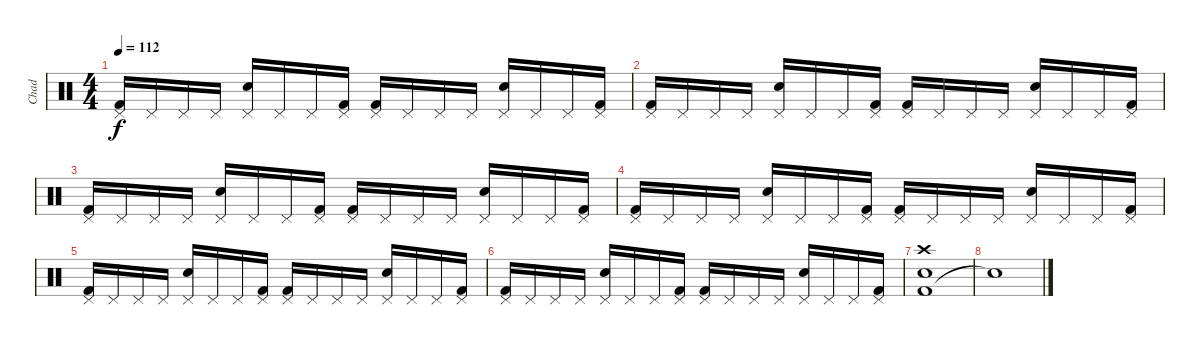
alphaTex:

\track ("Chad" "Chad") {instrument percussion}
\staff {score}
\articulation defaults
\ts (4 4)
\tempo 112
\clef neutral
\ks c
("Kick (hit) 2" "Pedal Hi-Hat (hit)").16{dy f} "Pedal Hi-Hat (hit)".16 "Pedal Hi-Hat (hit)".16 "Pedal Hi-Hat (hit)".16 ("Snare (hit) 2" "Pedal Hi-Hat (hit)").16 "Pedal Hi-Hat (hit)".16 "Pedal Hi-Hat (hit)".16 ("Kick (hit) 2" "Pedal Hi-Hat (hit)").16 ("Kick (hit) 2" "Pedal Hi-Hat (hit)").16 "Pedal Hi-Hat (hit)".16 "Pedal Hi-Hat (hit)".16 "Pedal Hi-Hat (hit)".16 ("Snare (hit) 2" "Pedal Hi-Hat (hit)").16 "Pedal Hi-Hat (hit)".16 "Pedal Hi-Hat (hit)".16 ("Kick (hit) 2" "Pedal Hi-Hat (hit)").16 |
("Kick (hit) 2" "Pedal Hi-Hat (hit)").16 "Pedal Hi-Hat (hit)".16 "Pedal Hi-Hat (hit)".16 "Pedal Hi-Hat (hit)".16 ("Snare (hit) 2" "Pedal Hi-Hat (hit)").16 "Pedal Hi-Hat (hit)".16 "Pedal Hi-Hat (hit)".16 ("Kick (hit) 2" "Pedal Hi-Hat (hit)").16 ("Kick (hit) 2" "Pedal Hi-Hat (hit)").16 "Pedal Hi-Hat (hit)".16 "Pedal Hi-Hat (hit)".16 "Pedal Hi-Hat (hit)".16 ("Snare (hit) 2" "Pedal Hi-Hat (hit)").16 "Pedal Hi-Hat (hit)".16 "Pedal Hi-Hat (hit)".16 ("Kick (hit) 2" "Pedal Hi-Hat (hit)").16 |
("Kick (hit) 2" "Pedal Hi-Hat (hit)").16 "Pedal Hi-Hat (hit)".16 "Pedal Hi-Hat (hit)".16 "Pedal Hi-Hat (hit)".16 ("Snare (hit) 2" "Pedal Hi-Hat (hit)").16 "Pedal Hi-Hat (hit)".16 "Pedal Hi-Hat (hit)".16 ("Kick (hit) 2" "Pedal Hi-Hat (hit)").16 ("Kick (hit) 2" "Pedal Hi-Hat (hit)").16 "Pedal Hi-Hat (hit)".16 "Pedal Hi-Hat (hit)".16 "Pedal Hi-Hat (hit)".16 ("Snare (hit) 2" "Pedal Hi-Hat (hit)").16 "Pedal Hi-Hat (hit)".16 "Pedal Hi-Hat (hit)".16 ("Kick (hit) 2" "Pedal Hi-Hat (hit)").16 |
("Kick (hit) 2" "Pedal Hi-Hat (hit)").16 "Pedal Hi-Hat (hit)".16 "Pedal Hi-Hat (hit)".16 "Pedal Hi-Hat (hit)".16 ("Snare (hit) 2" "Pedal Hi-Hat (hit)").16 "Pedal Hi-Hat (hit)".16 "Pedal Hi-Hat (hit)".16 ("Kick (hit) 2" "Pedal Hi-Hat (hit)").16 ("Kick (hit) 2" "Pedal Hi-Hat (hit)").16 "Pedal Hi-Hat (hit)".16 "Pedal Hi-Hat (hit)".16 "Pedal Hi-Hat (hit)".16 ("Snare (hit) 2" "Pedal Hi-Hat (hit)").16 "Pedal Hi-Hat (hit)".16 "Pedal Hi-Hat (hit)".16 ("Kick (hit) 2" "Pedal Hi-Hat (hit)").16 |
("Kick (hit) 2" "Pedal Hi-Hat (hit)").16 "Pedal Hi-Hat (hit)".16 "Pedal Hi-Hat (hit)".16 "Pedal Hi-Hat (hit)".16 ("Snare (hit) 2" "Pedal Hi-Hat (hit)").16 "Pedal Hi-Hat (hit)".16 "Pedal Hi-Hat (hit)".16 ("Kick (hit) 2" "Pedal Hi-Hat (hit)").16 ("Kick (hit) 2" "Pedal Hi-Hat (hit)").16 "Pedal Hi-Hat (hit)".16 "Pedal Hi-Hat (hit)".16 "Pedal Hi-Hat (hit)".16 ("Snare (hit) 2" "Pedal Hi-Hat (hit)").16 "Pedal Hi-Hat (hit)".16 "Pedal Hi-Hat (hit)".16 ("Kick (hit) 2" "Pedal Hi-Hat (hit)").16 |
("Kick (hit) 2" "Pedal Hi-Hat (hit)").16 "Pedal Hi-Hat (hit)".16 "Pedal Hi-Hat (hit)".16 "Pedal Hi-Hat (hit)".16 ("Snare (hit) 2" "Pedal Hi-Hat (hit)").16 "Pedal Hi-Hat (hit)".16 "Pedal Hi-Hat (hit)".16 ("Kick (hit) 2" "Pedal Hi-Hat (hit)").16 ("Kick (hit) 2" "Pedal Hi-Hat (hit)").16 "Pedal Hi-Hat (hit)".16 "Pedal Hi-Hat (hit)".16 "Pedal Hi-Hat (hit)".16 ("Snare (hit) 2" "Pedal Hi-Hat (hit)").16 "Pedal Hi-Hat (hit)".16 "Pedal Hi-Hat (hit)".16 ("Kick (hit) 2" "Pedal Hi-Hat (hit)").16 |
("Kick (hit) 2" "Snare (hit) 2" "Crash high (hit)").1 |
"Snare (hit)"{t}.1
